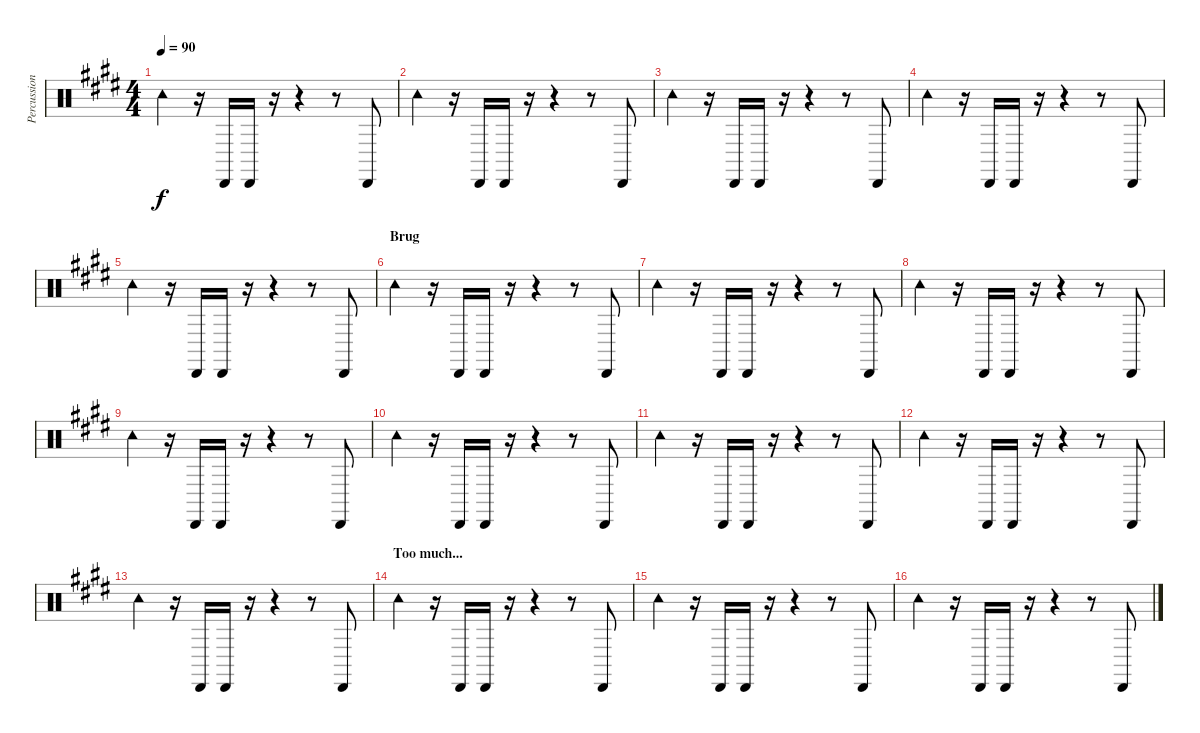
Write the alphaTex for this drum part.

\track ("Percussion" "Percussion") {instrument percussion}
\staff {score}
\articulation defaults
\ts (4 4)
\tempo 90
\clef neutral
\ks e "Tambourine (hit)".4{dy f}
r.16 "Cabasa (hit)".16 "Cabasa (hit)".16 r.16 r.4 r.8 "Cabasa (hit)".8 |
"Tambourine (hit)".4 r.16 "Cabasa (hit)".16 "Cabasa (hit)".16 r.16 r.4 r.8 "Cabasa (hit)".8 |
"Tambourine (hit)".4 r.16 "Cabasa (hit)".16 "Cabasa (hit)".16 r.16 r.4 r.8 "Cabasa (hit)".8 |
"Tambourine (hit)".4 r.16 "Cabasa (hit)".16 "Cabasa (hit)".16 r.16 r.4 r.8 "Cabasa (hit)".8 |
"Tambourine (hit)".4 r.16 "Cabasa (hit)".16 "Cabasa (hit)".16 r.16 r.4 r.8 "Cabasa (hit)".8 |
\section ("" "Brug")
"Tambourine (hit)".4 r.16 "Cabasa (hit)".16 "Cabasa (hit)".16 r.16 r.4 r.8 "Cabasa (hit)".8 |
"Tambourine (hit)".4 r.16 "Cabasa (hit)".16 "Cabasa (hit)".16 r.16 r.4 r.8 "Cabasa (hit)".8 |
"Tambourine (hit)".4 r.16 "Cabasa (hit)".16 "Cabasa (hit)".16 r.16 r.4 r.8 "Cabasa (hit)".8 |
"Tambourine (hit)".4 r.16 "Cabasa (hit)".16 "Cabasa (hit)".16 r.16 r.4 r.8 "Cabasa (hit)".8 |
"Tambourine (hit)".4 r.16 "Cabasa (hit)".16 "Cabasa (hit)".16 r.16 r.4 r.8 "Cabasa (hit)".8 |
"Tambourine (hit)".4 r.16 "Cabasa (hit)".16 "Cabasa (hit)".16 r.16 r.4 r.8 "Cabasa (hit)".8 |
"Tambourine (hit)".4 r.16 "Cabasa (hit)".16 "Cabasa (hit)".16 r.16 r.4 r.8 "Cabasa (hit)".8 |
"Tambourine (hit)".4 r.16 "Cabasa (hit)".16 "Cabasa (hit)".16 r.16 r.4 r.8 "Cabasa (hit)".8 |
\section ("" "Too much...")
"Tambourine (hit)".4 r.16 "Cabasa (hit)".16 "Cabasa (hit)".16 r.16 r.4 r.8 "Cabasa (hit)".8 |
"Tambourine (hit)".4 r.16 "Cabasa (hit)".16 "Cabasa (hit)".16 r.16 r.4 r.8 "Cabasa (hit)".8 |
"Tambourine (hit)".4 r.16 "Cabasa (hit)".16 "Cabasa (hit)".16 r.16 r.4 r.8 "Cabasa (hit)".8
